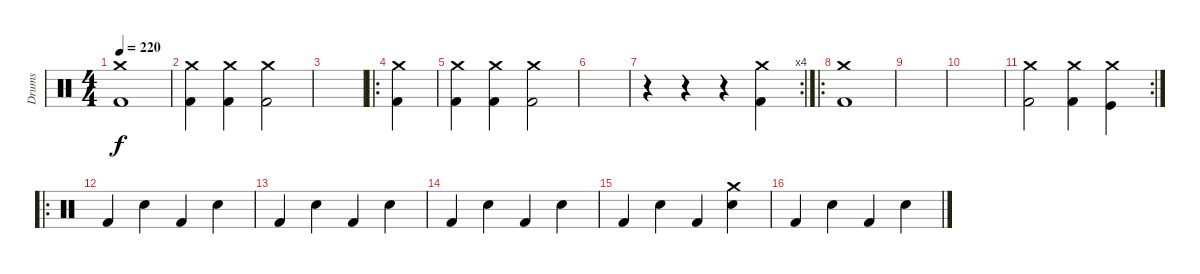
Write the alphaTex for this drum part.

\track ("Drums" "Drums") {instrument percussion}
\staff {score}
\articulation defaults
\ts (4 4)
\tempo 220
\clef neutral
\ks c
("Kick (hit) 2" "Crash medium (hit)").1{dy f} |
("Crash medium (hit)" "Kick (hit) 2").4 ("Crash medium (hit)" "Kick (hit) 2").4 ("Crash medium (hit)" "Kick (hit) 2").2 |
|
\ro
("Crash medium (hit)" "Kick (hit) 2").4 |
("Crash medium (hit)" "Kick (hit) 2").4 ("Crash medium (hit)" "Kick (hit) 2").4 ("Crash medium (hit)" "Kick (hit) 2").2 |
|
\rc 4
r.4 r.4 r.4 ("Kick (hit) 2" "Crash medium (hit)").4 |
\ro
("Crash medium (hit)" "Kick (hit) 2").1 |
|
|
\rc 2
("Crash medium (hit)" "Kick (hit) 2").2 ("Kick (hit) 2" "Crash medium (hit)").4 ("Crash medium (hit)" "Kick (hit)").4 |
\ro "Kick (hit) 2".4 "Electric Snare (hit)".4 "Kick (hit) 2".4 "Electric Snare (hit)".4
|
"Kick (hit) 2".4 "Electric Snare (hit)".4 "Kick (hit) 2".4 "Electric Snare (hit)".4 |
"Kick (hit) 2".4 "Electric Snare (hit)".4 "Kick (hit) 2".4 "Electric Snare (hit)".4 |
"Kick (hit) 2".4 "Electric Snare (hit)".4 "Kick (hit) 2".4 ("Crash medium (hit)" "Snare (hit) 2").4 |
"Kick (hit) 2".4 "Electric Snare (hit)".4 "Kick (hit) 2".4 "Electric Snare (hit)".4
